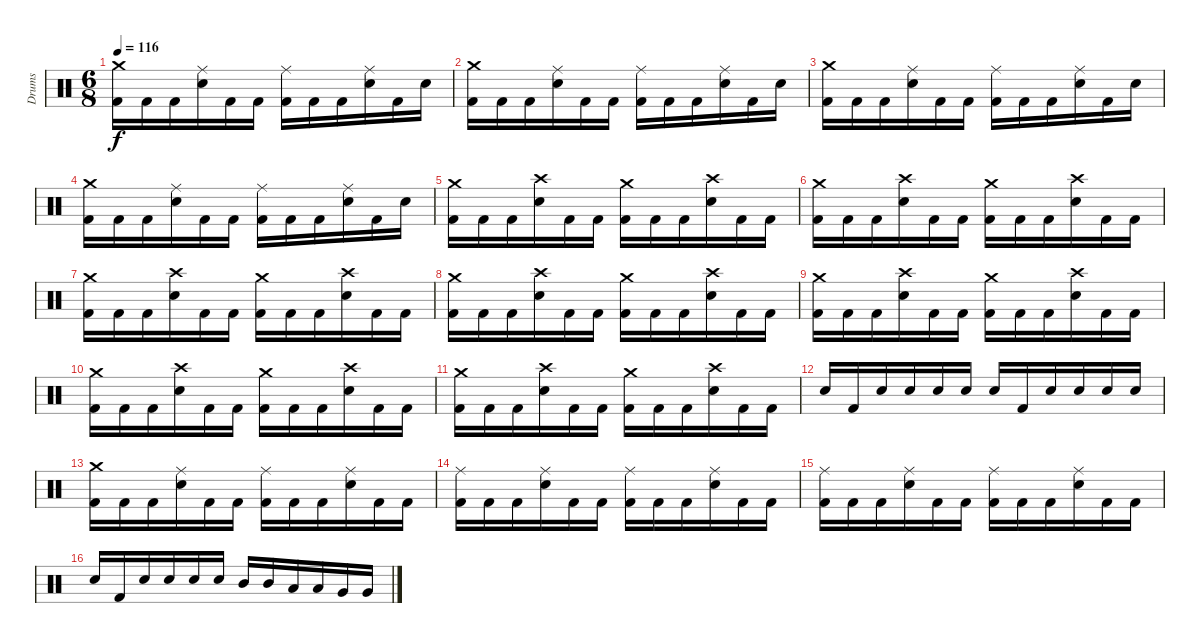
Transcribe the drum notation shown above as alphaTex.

\track ("Drums" "Drums") {instrument percussion}
\staff {score}
\articulation defaults
\ts (6 8)
\tempo 116
\clef neutral
\ks c
("Crash medium (hit)" "Kick (hit) 2").16{dy f} "Kick (hit) 2".16 "Kick (hit) 2".16 ("Ride (middle)" "Electric Snare (hit)").16 "Kick (hit) 2".16 "Kick (hit) 2".16 ("Ride (middle)" "Kick (hit) 2").16 "Kick (hit) 2".16 "Kick (hit) 2".16 ("Ride (middle)" "Electric Snare (hit)").16 "Kick (hit) 2".16 "Electric Snare (hit)".16 |
("Crash medium (hit)" "Kick (hit) 2").16 "Kick (hit) 2".16 "Kick (hit) 2".16 ("Ride (middle)" "Electric Snare (hit)").16 "Kick (hit) 2".16 "Kick (hit) 2".16 ("Ride (middle)" "Kick (hit) 2").16 "Kick (hit) 2".16 "Kick (hit) 2".16 ("Ride (middle)" "Electric Snare (hit)").16 "Kick (hit) 2".16 "Electric Snare (hit)".16 |
("Crash medium (hit)" "Kick (hit) 2").16 "Kick (hit) 2".16 "Kick (hit) 2".16 ("Ride (middle)" "Electric Snare (hit)").16 "Kick (hit) 2".16 "Kick (hit) 2".16 ("Ride (middle)" "Kick (hit) 2").16 "Kick (hit) 2".16 "Kick (hit) 2".16 ("Ride (middle)" "Electric Snare (hit)").16 "Kick (hit) 2".16 "Electric Snare (hit)".16 |
("Crash medium (hit)" "Kick (hit) 2").16 "Kick (hit) 2".16 "Kick (hit) 2".16 ("Ride (middle)" "Electric Snare (hit)").16 "Kick (hit) 2".16 "Kick (hit) 2".16 ("Ride (middle)" "Kick (hit) 2").16 "Kick (hit) 2".16 "Kick (hit) 2".16 ("Ride (middle)" "Electric Snare (hit)").16 "Kick (hit) 2".16 "Electric Snare (hit)".16 |
("Crash medium (hit)" "Kick (hit) 2").16 "Kick (hit) 2".16 "Kick (hit) 2".16 ("Crash high (hit)" "Electric Snare (hit)").16 "Kick (hit) 2".16 "Kick (hit) 2".16 ("Crash medium (hit)" "Kick (hit) 2").16 "Kick (hit) 2".16 "Kick (hit) 2".16 ("Crash high (hit)" "Electric Snare (hit)").16 "Kick (hit) 2".16 "Kick (hit) 2".16 |
("Crash medium (hit)" "Kick (hit) 2").16 "Kick (hit) 2".16 "Kick (hit) 2".16 ("Crash high (hit)" "Electric Snare (hit)").16 "Kick (hit) 2".16 "Kick (hit) 2".16 ("Crash medium (hit)" "Kick (hit) 2").16 "Kick (hit) 2".16 "Kick (hit) 2".16 ("Crash high (hit)" "Electric Snare (hit)").16 "Kick (hit) 2".16 "Kick (hit) 2".16 |
("Crash medium (hit)" "Kick (hit) 2").16 "Kick (hit) 2".16 "Kick (hit) 2".16 ("Crash high (hit)" "Electric Snare (hit)").16 "Kick (hit) 2".16 "Kick (hit) 2".16 ("Crash medium (hit)" "Kick (hit) 2").16 "Kick (hit) 2".16 "Kick (hit) 2".16 ("Crash high (hit)" "Electric Snare (hit)").16 "Kick (hit) 2".16 "Kick (hit) 2".16 |
("Crash medium (hit)" "Kick (hit) 2").16 "Kick (hit) 2".16 "Kick (hit) 2".16 ("Crash high (hit)" "Electric Snare (hit)").16 "Kick (hit) 2".16 "Kick (hit) 2".16 ("Crash medium (hit)" "Kick (hit) 2").16 "Kick (hit) 2".16 "Kick (hit) 2".16 ("Crash high (hit)" "Electric Snare (hit)").16 "Kick (hit) 2".16 "Kick (hit) 2".16 |
("Crash medium (hit)" "Kick (hit) 2").16 "Kick (hit) 2".16 "Kick (hit) 2".16 ("Crash high (hit)" "Electric Snare (hit)").16 "Kick (hit) 2".16 "Kick (hit) 2".16 ("Crash medium (hit)" "Kick (hit) 2").16 "Kick (hit) 2".16 "Kick (hit) 2".16 ("Crash high (hit)" "Electric Snare (hit)").16 "Kick (hit) 2".16 "Kick (hit) 2".16 |
("Crash medium (hit)" "Kick (hit) 2").16 "Kick (hit) 2".16 "Kick (hit) 2".16 ("Crash high (hit)" "Electric Snare (hit)").16 "Kick (hit) 2".16 "Kick (hit) 2".16 ("Crash medium (hit)" "Kick (hit) 2").16 "Kick (hit) 2".16 "Kick (hit) 2".16 ("Crash high (hit)" "Electric Snare (hit)").16 "Kick (hit) 2".16 "Kick (hit) 2".16 |
("Crash medium (hit)" "Kick (hit) 2").16 "Kick (hit) 2".16 "Kick (hit) 2".16 ("Crash high (hit)" "Electric Snare (hit)").16 "Kick (hit) 2".16 "Kick (hit) 2".16 ("Crash medium (hit)" "Kick (hit) 2").16 "Kick (hit) 2".16 "Kick (hit) 2".16 ("Crash high (hit)" "Electric Snare (hit)").16 "Kick (hit) 2".16 "Kick (hit) 2".16 |
"Electric Snare (hit)".16 "Kick (hit) 2".16 "Electric Snare (hit)".16 "Electric Snare (hit)".16 "Electric Snare (hit)".16 "Electric Snare (hit)".16 "Electric Snare (hit)".16 "Kick (hit) 2".16 "Electric Snare (hit)".16 "Electric Snare (hit)".16 "Electric Snare (hit)".16 "Electric Snare (hit)".16 |
\section ("" "")
("Crash medium (hit)" "Kick (hit) 2").16 "Kick (hit) 2".16 "Kick (hit) 2".16 ("Ride (middle)" "Electric Snare (hit)").16 "Kick (hit) 2".16 "Kick (hit) 2".16 ("Ride (middle)" "Kick (hit) 2").16 "Kick (hit) 2".16 "Kick (hit) 2".16 ("Ride (middle)" "Electric Snare (hit)").16 "Kick (hit) 2".16 "Kick (hit) 2".16 |
("Ride (middle)" "Kick (hit) 2").16 "Kick (hit) 2".16 "Kick (hit) 2".16 ("Ride (middle)" "Electric Snare (hit)").16 "Kick (hit) 2".16 "Kick (hit) 2".16 ("Ride (middle)" "Kick (hit) 2").16 "Kick (hit) 2".16 "Kick (hit) 2".16 ("Ride (middle)" "Electric Snare (hit)").16 "Kick (hit) 2".16 "Kick (hit) 2".16 |
("Ride (middle)" "Kick (hit) 2").16 "Kick (hit) 2".16 "Kick (hit) 2".16 ("Ride (middle)" "Electric Snare (hit)").16 "Kick (hit) 2".16 "Kick (hit) 2".16 ("Ride (middle)" "Kick (hit) 2").16 "Kick (hit) 2".16 "Kick (hit) 2".16 ("Ride (middle)" "Electric Snare (hit)").16 "Kick (hit) 2".16 "Kick (hit) 2".16 |
"Electric Snare (hit)".16 "Kick (hit) 2".16 "Electric Snare (hit)".16 "Electric Snare (hit)".16 "Electric Snare (hit)".16 "Electric Snare (hit)".16 "Mid Tom (hit)".16 "Mid Tom (hit)".16 "Low Tom (hit)".16 "Low Tom (hit)".16 "Very Low Tom (hit)".16 "Very Low Tom (hit)".16
